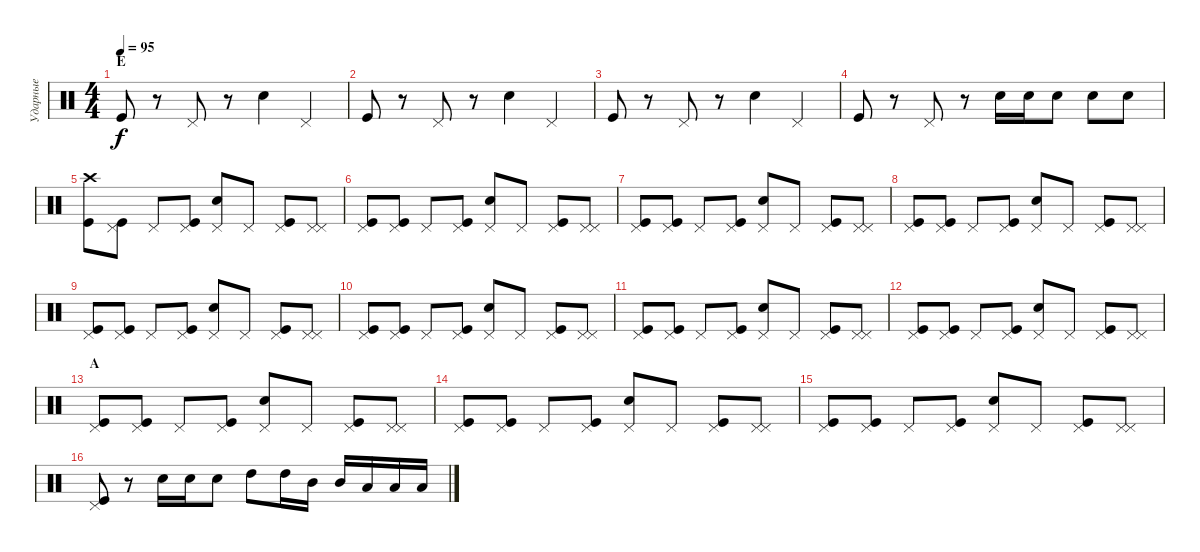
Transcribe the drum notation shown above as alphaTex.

\track ("Ударные" "Ударные") {instrument percussion}
\staff {score}
\articulation defaults
\ts (4 4)
\section ("" "Е")
\tempo 95
\clef neutral
\ks c "Kick (hit)".8{dy f}
r.8 "Pedal Hi-Hat (hit)".8 r.8 "Electric Snare (hit)".4 "Pedal Hi-Hat (hit)".4 |
"Kick (hit)".8 r.8 "Pedal Hi-Hat (hit)".8 r.8 "Electric Snare (hit)".4 "Pedal Hi-Hat (hit)".4 |
"Kick (hit)".8 r.8 "Pedal Hi-Hat (hit)".8 r.8 "Electric Snare (hit)".4 "Pedal Hi-Hat (hit)".4 |
"Kick (hit)".8 r.8 "Pedal Hi-Hat (hit)".8 r.8 "Electric Snare (hit)".16 "Electric Snare (hit)".16 "Electric Snare (hit)".8 "Electric Snare (hit)".8 "Electric Snare (hit)".8 |
("Crash high (hit)" "Kick (hit)").8 ("Pedal Hi-Hat (hit)" "Kick (hit)").8 "Pedal Hi-Hat (hit)".8 ("Pedal Hi-Hat (hit)" "Kick (hit)").8 ("Pedal Hi-Hat (hit)" "Electric Snare (hit)").8 "Pedal Hi-Hat (hit)".8 ("Pedal Hi-Hat (hit)" "Kick (hit)").8 ("Pedal Hi-Hat (hit)" "Pedal Hi-Hat (hit)").8 |
("Pedal Hi-Hat (hit)" "Kick (hit)").8 ("Pedal Hi-Hat (hit)" "Kick (hit)").8 "Pedal Hi-Hat (hit)".8 ("Pedal Hi-Hat (hit)" "Kick (hit)").8 ("Pedal Hi-Hat (hit)" "Electric Snare (hit)").8 "Pedal Hi-Hat (hit)".8 ("Pedal Hi-Hat (hit)" "Kick (hit)").8 ("Pedal Hi-Hat (hit)" "Pedal Hi-Hat (hit)").8 |
("Pedal Hi-Hat (hit)" "Kick (hit)").8 ("Pedal Hi-Hat (hit)" "Kick (hit)").8 "Pedal Hi-Hat (hit)".8 ("Pedal Hi-Hat (hit)" "Kick (hit)").8 ("Pedal Hi-Hat (hit)" "Electric Snare (hit)").8 "Pedal Hi-Hat (hit)".8 ("Pedal Hi-Hat (hit)" "Kick (hit)").8 ("Pedal Hi-Hat (hit)" "Pedal Hi-Hat (hit)").8 |
("Pedal Hi-Hat (hit)" "Kick (hit)").8 ("Pedal Hi-Hat (hit)" "Kick (hit)").8 "Pedal Hi-Hat (hit)".8 ("Pedal Hi-Hat (hit)" "Kick (hit)").8 ("Pedal Hi-Hat (hit)" "Electric Snare (hit)").8 "Pedal Hi-Hat (hit)".8 ("Pedal Hi-Hat (hit)" "Kick (hit)").8 ("Pedal Hi-Hat (hit)" "Pedal Hi-Hat (hit)").8 |
("Pedal Hi-Hat (hit)" "Kick (hit)").8 ("Pedal Hi-Hat (hit)" "Kick (hit)").8 "Pedal Hi-Hat (hit)".8 ("Pedal Hi-Hat (hit)" "Kick (hit)").8 ("Pedal Hi-Hat (hit)" "Electric Snare (hit)").8 "Pedal Hi-Hat (hit)".8 ("Pedal Hi-Hat (hit)" "Kick (hit)").8 ("Pedal Hi-Hat (hit)" "Pedal Hi-Hat (hit)").8 |
("Pedal Hi-Hat (hit)" "Kick (hit)").8 ("Pedal Hi-Hat (hit)" "Kick (hit)").8 "Pedal Hi-Hat (hit)".8 ("Pedal Hi-Hat (hit)" "Kick (hit)").8 ("Pedal Hi-Hat (hit)" "Electric Snare (hit)").8 "Pedal Hi-Hat (hit)".8 ("Pedal Hi-Hat (hit)" "Kick (hit)").8 ("Pedal Hi-Hat (hit)" "Pedal Hi-Hat (hit)").8 |
("Pedal Hi-Hat (hit)" "Kick (hit)").8 ("Pedal Hi-Hat (hit)" "Kick (hit)").8 "Pedal Hi-Hat (hit)".8 ("Pedal Hi-Hat (hit)" "Kick (hit)").8 ("Pedal Hi-Hat (hit)" "Electric Snare (hit)").8 "Pedal Hi-Hat (hit)".8 ("Pedal Hi-Hat (hit)" "Kick (hit)").8 ("Pedal Hi-Hat (hit)" "Pedal Hi-Hat (hit)").8 |
("Pedal Hi-Hat (hit)" "Kick (hit)").8 ("Pedal Hi-Hat (hit)" "Kick (hit)").8 "Pedal Hi-Hat (hit)".8 ("Pedal Hi-Hat (hit)" "Kick (hit)").8 ("Pedal Hi-Hat (hit)" "Electric Snare (hit)").8 "Pedal Hi-Hat (hit)".8 ("Pedal Hi-Hat (hit)" "Kick (hit)").8 ("Pedal Hi-Hat (hit)" "Pedal Hi-Hat (hit)").8 |
\section ("" "А")
("Pedal Hi-Hat (hit)" "Kick (hit)").8 ("Pedal Hi-Hat (hit)" "Kick (hit)").8 "Pedal Hi-Hat (hit)".8 ("Pedal Hi-Hat (hit)" "Kick (hit)").8 ("Pedal Hi-Hat (hit)" "Electric Snare (hit)").8 "Pedal Hi-Hat (hit)".8 ("Pedal Hi-Hat (hit)" "Kick (hit)").8 ("Pedal Hi-Hat (hit)" "Pedal Hi-Hat (hit)").8 |
("Pedal Hi-Hat (hit)" "Kick (hit)").8 ("Pedal Hi-Hat (hit)" "Kick (hit)").8 "Pedal Hi-Hat (hit)".8 ("Pedal Hi-Hat (hit)" "Kick (hit)").8 ("Pedal Hi-Hat (hit)" "Electric Snare (hit)").8 "Pedal Hi-Hat (hit)".8 ("Pedal Hi-Hat (hit)" "Kick (hit)").8 ("Pedal Hi-Hat (hit)" "Pedal Hi-Hat (hit)").8 |
("Pedal Hi-Hat (hit)" "Kick (hit)").8 ("Pedal Hi-Hat (hit)" "Kick (hit)").8 "Pedal Hi-Hat (hit)".8 ("Pedal Hi-Hat (hit)" "Kick (hit)").8 ("Pedal Hi-Hat (hit)" "Electric Snare (hit)").8 "Pedal Hi-Hat (hit)".8 ("Pedal Hi-Hat (hit)" "Kick (hit)").8 ("Pedal Hi-Hat (hit)" "Pedal Hi-Hat (hit)").8 |
("Pedal Hi-Hat (hit)" "Kick (hit)").8 r.8 "Snare (hit) 2".16 "Snare (hit) 2".16 "Snare (hit) 2".8 "High Tom (hit)".8 "High Tom (hit)".16 "Mid Tom (hit)".16 "Mid Tom (hit)".16 "Low Tom (hit)".16 "Low Tom (hit)".16 "Low Tom (hit)".16
